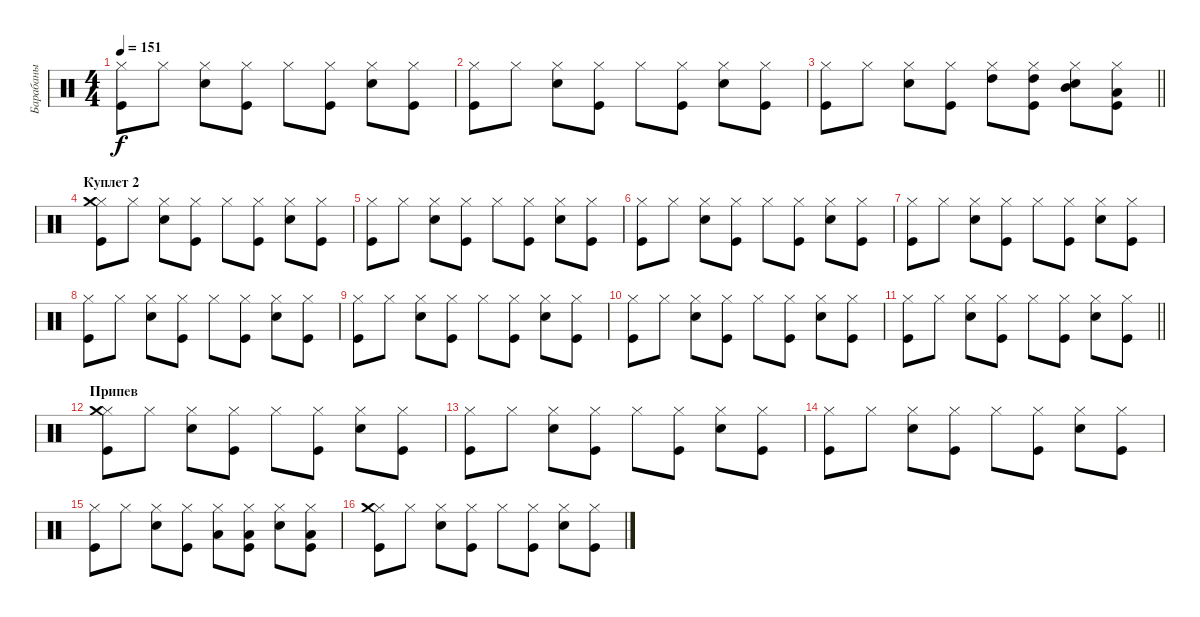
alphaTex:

\track ("Барабаны" "Барабаны") {instrument percussion}
\staff {score}
\articulation defaults
\ts (4 4)
\tempo 151
\clef neutral
\ks c
("Kick (hit)" "Hi-Hat (closed)").8{dy f} "Hi-Hat (closed)".8 ("Snare (hit) 2" "Hi-Hat (closed)").8 ("Kick (hit)" "Hi-Hat (closed)").8 "Hi-Hat (closed)".8 ("Kick (hit)" "Hi-Hat (closed)").8 ("Snare (hit) 2" "Hi-Hat (closed)").8 ("Kick (hit)" "Hi-Hat (closed)").8 |
("Kick (hit)" "Hi-Hat (closed)").8 "Hi-Hat (closed)".8 ("Snare (hit) 2" "Hi-Hat (closed)").8 ("Kick (hit)" "Hi-Hat (closed)").8 "Hi-Hat (closed)".8 ("Kick (hit)" "Hi-Hat (closed)").8 ("Snare (hit) 2" "Hi-Hat (closed)").8 ("Kick (hit)" "Hi-Hat (closed)").8 |
\barLineRight lightlight
("Kick (hit)" "Hi-Hat (closed)").8 "Hi-Hat (closed)".8 ("Snare (hit) 2" "Hi-Hat (closed)").8 ("Kick (hit)" "Hi-Hat (closed)").8 ("Hi-Hat (closed)" "High Tom (hit)").8 ("Kick (hit)" "Hi-Hat (closed)" "High Tom (hit)").8 ("Snare (hit) 2" "Hi-Hat (closed)" "Mid Tom (hit)").8 ("Kick (hit)" "Hi-Hat (closed)" "Low Tom (hit)").8 |
\section ("" "Куплет 2")
("Kick (hit)" "Hi-Hat (closed)" "Crash medium (hit)").8 "Hi-Hat (closed)".8 ("Snare (hit) 2" "Hi-Hat (closed)").8 ("Kick (hit)" "Hi-Hat (closed)").8 "Hi-Hat (closed)".8 ("Kick (hit)" "Hi-Hat (closed)").8 ("Snare (hit) 2" "Hi-Hat (closed)").8 ("Kick (hit)" "Hi-Hat (closed)").8 |
("Kick (hit)" "Hi-Hat (closed)").8 "Hi-Hat (closed)".8 ("Snare (hit) 2" "Hi-Hat (closed)").8 ("Kick (hit)" "Hi-Hat (closed)").8 "Hi-Hat (closed)".8 ("Kick (hit)" "Hi-Hat (closed)").8 ("Snare (hit) 2" "Hi-Hat (closed)").8 ("Kick (hit)" "Hi-Hat (closed)").8 |
("Kick (hit)" "Hi-Hat (closed)").8 "Hi-Hat (closed)".8 ("Snare (hit) 2" "Hi-Hat (closed)").8 ("Kick (hit)" "Hi-Hat (closed)").8 "Hi-Hat (closed)".8 ("Kick (hit)" "Hi-Hat (closed)").8 ("Snare (hit) 2" "Hi-Hat (closed)").8 ("Kick (hit)" "Hi-Hat (closed)").8 |
("Kick (hit)" "Hi-Hat (closed)").8 "Hi-Hat (closed)".8 ("Snare (hit) 2" "Hi-Hat (closed)").8 ("Kick (hit)" "Hi-Hat (closed)").8 "Hi-Hat (closed)".8 ("Kick (hit)" "Hi-Hat (closed)").8 ("Snare (hit) 2" "Hi-Hat (closed)").8 ("Kick (hit)" "Hi-Hat (closed)").8 |
("Kick (hit)" "Hi-Hat (closed)").8 "Hi-Hat (closed)".8 ("Snare (hit) 2" "Hi-Hat (closed)").8 ("Kick (hit)" "Hi-Hat (closed)").8 "Hi-Hat (closed)".8 ("Kick (hit)" "Hi-Hat (closed)").8 ("Snare (hit) 2" "Hi-Hat (closed)").8 ("Kick (hit)" "Hi-Hat (closed)").8 |
("Kick (hit)" "Hi-Hat (closed)").8 "Hi-Hat (closed)".8 ("Snare (hit) 2" "Hi-Hat (closed)").8 ("Kick (hit)" "Hi-Hat (closed)").8 "Hi-Hat (closed)".8 ("Kick (hit)" "Hi-Hat (closed)").8 ("Snare (hit) 2" "Hi-Hat (closed)").8 ("Kick (hit)" "Hi-Hat (closed)").8 |
("Kick (hit)" "Hi-Hat (closed)").8 "Hi-Hat (closed)".8 ("Snare (hit) 2" "Hi-Hat (closed)").8 ("Kick (hit)" "Hi-Hat (closed)").8 "Hi-Hat (closed)".8 ("Kick (hit)" "Hi-Hat (closed)").8 ("Snare (hit) 2" "Hi-Hat (closed)").8 ("Kick (hit)" "Hi-Hat (closed)").8 |
\barLineRight lightlight
("Kick (hit)" "Hi-Hat (closed)").8 "Hi-Hat (closed)".8 ("Snare (hit) 2" "Hi-Hat (closed)").8 ("Kick (hit)" "Hi-Hat (closed)").8 "Hi-Hat (closed)".8 ("Kick (hit)" "Hi-Hat (closed)").8 ("Snare (hit) 2" "Hi-Hat (closed)").8 ("Kick (hit)" "Hi-Hat (closed)").8 |
\section ("" "Припев")
("Kick (hit)" "Hi-Hat (closed)" "Crash medium (hit)").8 "Hi-Hat (closed)".8 ("Snare (hit) 2" "Hi-Hat (closed)").8 ("Kick (hit)" "Hi-Hat (closed)").8 "Hi-Hat (closed)".8 ("Kick (hit)" "Hi-Hat (closed)").8 ("Snare (hit) 2" "Hi-Hat (closed)").8 ("Kick (hit)" "Hi-Hat (closed)").8 |
("Kick (hit)" "Hi-Hat (closed)").8 "Hi-Hat (closed)".8 ("Snare (hit) 2" "Hi-Hat (closed)").8 ("Kick (hit)" "Hi-Hat (closed)").8 "Hi-Hat (closed)".8 ("Kick (hit)" "Hi-Hat (closed)").8 ("Snare (hit) 2" "Hi-Hat (closed)").8 ("Kick (hit)" "Hi-Hat (closed)").8 |
("Kick (hit)" "Hi-Hat (closed)").8 "Hi-Hat (closed)".8 ("Snare (hit) 2" "Hi-Hat (closed)").8 ("Kick (hit)" "Hi-Hat (closed)").8 "Hi-Hat (closed)".8 ("Kick (hit)" "Hi-Hat (closed)").8 ("Snare (hit) 2" "Hi-Hat (closed)").8 ("Kick (hit)" "Hi-Hat (closed)").8 |
("Kick (hit)" "Hi-Hat (closed)").8 "Hi-Hat (closed)".8 ("Snare (hit) 2" "Hi-Hat (closed)").8 ("Kick (hit)" "Hi-Hat (closed)").8 ("Hi-Hat (closed)" "Low Floor Tom (hit)").8 ("Kick (hit)" "Hi-Hat (closed)" "Low Floor Tom (hit)").8 ("Snare (hit) 2" "Hi-Hat (closed)").8 ("Kick (hit)" "Hi-Hat (closed)" "Low Floor Tom (hit)").8 |
("Kick (hit)" "Hi-Hat (closed)" "Crash medium (hit)").8 "Hi-Hat (closed)".8 ("Snare (hit) 2" "Hi-Hat (closed)").8 ("Kick (hit)" "Hi-Hat (closed)").8 "Hi-Hat (closed)".8 ("Kick (hit)" "Hi-Hat (closed)").8 ("Snare (hit) 2" "Hi-Hat (closed)").8 ("Kick (hit)" "Hi-Hat (closed)").8
